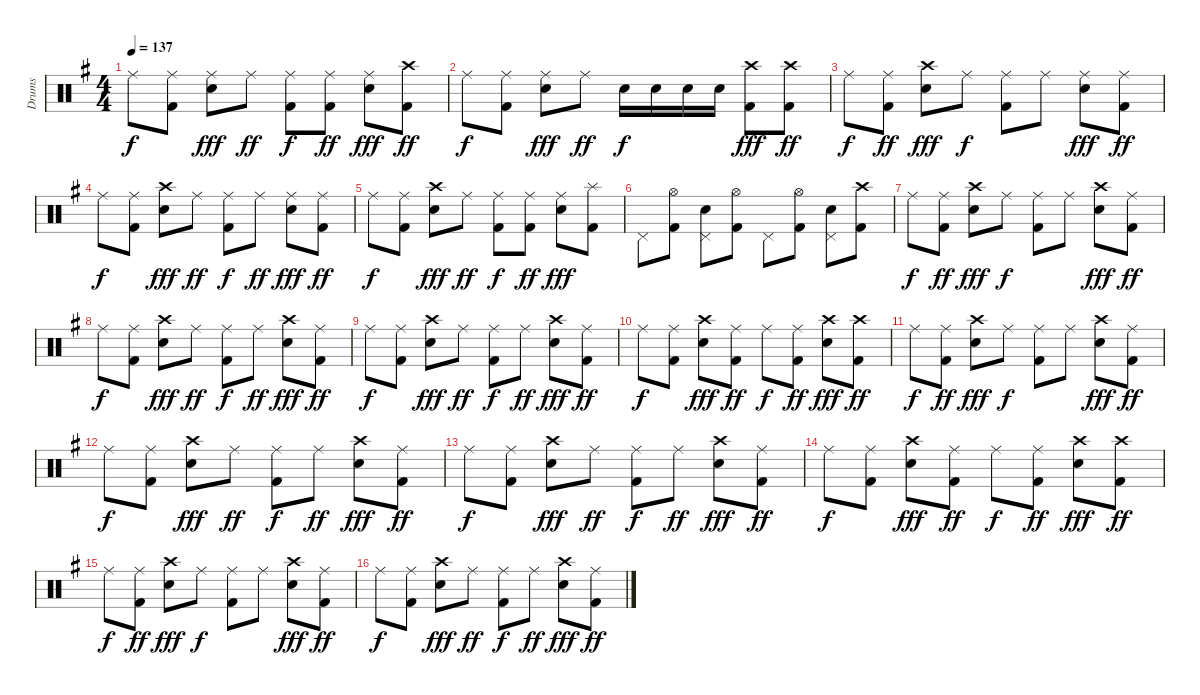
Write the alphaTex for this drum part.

\track ("Drums" "Drums") {instrument percussion}
\staff {score}
\articulation defaults
\ts (4 4)
\tempo 137
\clef neutral
\ks g "Ride (middle)".8{dy f}
("Ride (middle)" "Kick (hit) 2").8 ("Ride (middle)" "Snare (hit) 2").8{dy fff} "Ride (middle)".8{dy ff} ("Ride (middle)" "Kick (hit) 2").8{dy f} ("Ride (middle)" "Kick (hit) 2").8{dy ff} ("Ride (middle)" "Snare (hit) 2").8{dy fff} ("Crash high (hit)" "Kick (hit) 2").8{dy ff} |
"Ride (middle)".8{dy f} ("Ride (middle)" "Kick (hit) 2").8 ("Ride (middle)" "Snare (hit) 2").8{dy fff} "Ride (middle)".8{dy ff} "Snare (hit) 2".16{dy f} "Snare (hit) 2".16 "Snare (hit) 2".16 "Snare (hit) 2".16 ("Crash high (hit)" "Kick (hit) 2").8{dy fff} ("Crash high (hit)" "Kick (hit) 2").8{dy ff} |
"Ride (middle)".8{dy f} ("Ride (middle)" "Kick (hit) 2").8{dy ff} ("Crash high (hit)" "Snare (hit) 2").8{dy fff} "Ride (middle)".8{dy f} ("Ride (middle)" "Kick (hit) 2").8 "Ride (middle)".8 ("Ride (middle)" "Snare (hit) 2").8{dy fff} ("Ride (middle)" "Kick (hit) 2").8{dy ff} |
"Ride (middle)".8{dy f} ("Ride (middle)" "Kick (hit) 2").8 ("Crash high (hit)" "Snare (hit) 2").8{dy fff} "Ride (middle)".8{dy ff} ("Ride (middle)" "Kick (hit) 2").8{dy f} "Ride (middle)".8{dy ff} ("Ride (middle)" "Snare (hit) 2").8{dy fff} ("Ride (middle)" "Kick (hit) 2").8{dy ff} |
"Ride (middle)".8{dy f} ("Ride (middle)" "Kick (hit) 2").8 ("Crash high (hit)" "Snare (hit) 2").8{dy fff} "Ride (middle)".8{dy ff} ("Ride (middle)" "Kick (hit) 2").8{dy f} ("Ride (middle)" "Kick (hit) 2").8{dy ff} ("Ride (middle)" "Snare (hit) 2").8{dy fff} ("Splash (hit)" "Kick (hit) 2").8 |
"Pedal Hi-Hat (hit)".8 ("Hi-Hat (open)" "Kick (hit) 2").8 ("Pedal Hi-Hat (hit)" "Snare (hit) 2").8 ("Hi-Hat (open)" "Kick (hit) 2").8 "Pedal Hi-Hat (hit)".8 ("Hi-Hat (open)" "Kick (hit) 2").8 ("Pedal Hi-Hat (hit)" "Snare (hit) 2").8 ("Crash high (hit)" "Kick (hit) 2").8 |
"Ride (middle)".8{dy f} ("Ride (middle)" "Kick (hit) 2").8{dy ff} ("Crash high (hit)" "Snare (hit) 2").8{dy fff} "Ride (middle)".8{dy f} ("Ride (middle)" "Kick (hit) 2").8 "Ride (middle)".8 ("Crash high (hit)" "Snare (hit) 2").8{dy fff} ("Ride (middle)" "Kick (hit) 2").8{dy ff} |
"Ride (middle)".8{dy f} ("Ride (middle)" "Kick (hit) 2").8 ("Crash high (hit)" "Snare (hit) 2").8{dy fff} "Ride (middle)".8{dy ff} ("Ride (middle)" "Kick (hit) 2").8{dy f} "Ride (middle)".8{dy ff} ("Crash high (hit)" "Snare (hit) 2").8{dy fff} ("Ride (middle)" "Kick (hit) 2").8{dy ff} |
"Ride (middle)".8{dy f} ("Ride (middle)" "Kick (hit) 2").8 ("Crash high (hit)" "Snare (hit) 2").8{dy fff} "Ride (middle)".8{dy ff} ("Ride (middle)" "Kick (hit) 2").8{dy f} "Ride (middle)".8{dy ff} ("Crash high (hit)" "Snare (hit) 2").8{dy fff} ("Ride (middle)" "Kick (hit) 2").8{dy ff} |
"Ride (middle)".8{dy f} ("Ride (middle)" "Kick (hit) 2").8 ("Crash high (hit)" "Snare (hit) 2").8{dy fff} ("Ride (middle)" "Kick (hit) 2").8{dy ff} "Ride (middle)".8{dy f} ("Ride (middle)" "Kick (hit) 2").8{dy ff} ("Crash high (hit)" "Snare (hit) 2").8{dy fff} ("Crash high (hit)" "Kick (hit) 2").8{dy ff} |
"Ride (middle)".8{dy f} ("Ride (middle)" "Kick (hit) 2").8{dy ff} ("Crash high (hit)" "Snare (hit) 2").8{dy fff} "Ride (middle)".8{dy f} ("Ride (middle)" "Kick (hit) 2").8 "Ride (middle)".8 ("Crash high (hit)" "Snare (hit) 2").8{dy fff} ("Ride (middle)" "Kick (hit) 2").8{dy ff} |
"Ride (middle)".8{dy f} ("Ride (middle)" "Kick (hit) 2").8 ("Crash high (hit)" "Snare (hit) 2").8{dy fff} "Ride (middle)".8{dy ff} ("Ride (middle)" "Kick (hit) 2").8{dy f} "Ride (middle)".8{dy ff} ("Crash high (hit)" "Snare (hit) 2").8{dy fff} ("Ride (middle)" "Kick (hit) 2").8{dy ff} |
"Ride (middle)".8{dy f} ("Ride (middle)" "Kick (hit) 2").8 ("Crash high (hit)" "Snare (hit) 2").8{dy fff} "Ride (middle)".8{dy ff} ("Ride (middle)" "Kick (hit) 2").8{dy f} "Ride (middle)".8{dy ff} ("Crash high (hit)" "Snare (hit) 2").8{dy fff} ("Ride (middle)" "Kick (hit) 2").8{dy ff} |
"Ride (middle)".8{dy f} ("Ride (middle)" "Kick (hit) 2").8{volume 14} ("Crash high (hit)" "Snare (hit) 2").8{dy fff} ("Ride (middle)" "Kick (hit) 2").8{dy ff} "Ride (middle)".8{dy f} ("Ride (middle)" "Kick (hit) 2").8{dy ff} ("Crash high (hit)" "Snare (hit) 2").8{dy fff volume 14} ("Crash high (hit)" "Kick (hit) 2").8{dy ff} |
"Ride (middle)".8{dy f volume 13} ("Ride (middle)" "Kick (hit) 2").8{dy ff volume 13} ("Crash high (hit)" "Snare (hit) 2").8{dy fff} "Ride (middle)".8{dy f volume 13} ("Ride (middle)" "Kick (hit) 2").8{volume 13} "Ride (middle)".8{volume 13} ("Crash high (hit)" "Snare (hit) 2").8{dy fff volume 13} ("Ride (middle)" "Kick (hit) 2").8{dy ff volume 12} |
"Ride (middle)".8{dy f volume 12} ("Ride (middle)" "Kick (hit) 2").8{volume 12} ("Crash high (hit)" "Snare (hit) 2").8{dy fff volume 12} "Ride (middle)".8{dy ff volume 12} ("Ride (middle)" "Kick (hit) 2").8{dy f volume 12} "Ride (middle)".8{dy ff volume 11} ("Crash high (hit)" "Snare (hit) 2").8{dy fff volume 11} ("Ride (middle)" "Kick (hit) 2").8{dy ff volume 11}
